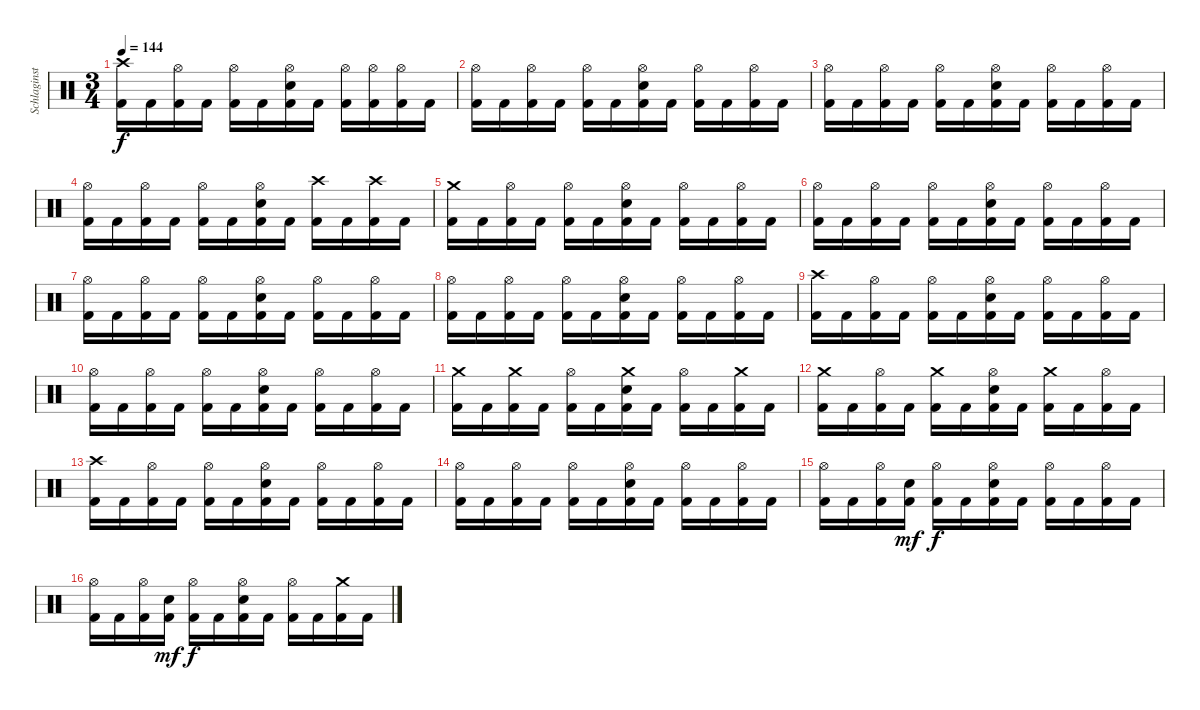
\track ("Schlaginstrumente - Auswahl" "Schlaginst") {instrument percussion}
\staff {score}
\articulation defaults
\ts (3 4)
\tempo 144
\clef neutral
\ks c
("Crash high (hit)" "Kick (hit) 2").16{dy f} "Kick (hit) 2".16 ("Hi-Hat (open)" "Kick (hit) 2").16 "Kick (hit) 2".16 ("Hi-Hat (open)" "Kick (hit) 2").16 "Kick (hit) 2".16 ("Hi-Hat (open)" "Snare (hit) 2" "Kick (hit) 2").16 "Kick (hit) 2".16 ("Hi-Hat (open)" "Kick (hit) 2").16 ("Hi-Hat (open)" "Kick (hit) 2").16 ("Hi-Hat (open)" "Kick (hit) 2").16 "Kick (hit) 2".16 |
("Hi-Hat (open)" "Kick (hit) 2").16 "Kick (hit) 2".16 ("Hi-Hat (open)" "Kick (hit) 2").16 "Kick (hit) 2".16 ("Hi-Hat (open)" "Kick (hit) 2").16 "Kick (hit) 2".16 ("Hi-Hat (open)" "Snare (hit) 2" "Kick (hit) 2").16 "Kick (hit) 2".16 ("Hi-Hat (open)" "Kick (hit) 2").16 "Kick (hit) 2".16 ("Hi-Hat (open)" "Kick (hit) 2").16 "Kick (hit) 2".16 |
("Hi-Hat (open)" "Kick (hit) 2").16 "Kick (hit) 2".16 ("Hi-Hat (open)" "Kick (hit) 2").16 "Kick (hit) 2".16 ("Hi-Hat (open)" "Kick (hit) 2").16 "Kick (hit) 2".16 ("Hi-Hat (open)" "Snare (hit) 2" "Kick (hit) 2").16 "Kick (hit) 2".16 ("Hi-Hat (open)" "Kick (hit) 2").16 "Kick (hit) 2".16 ("Hi-Hat (open)" "Kick (hit) 2").16 "Kick (hit) 2".16 |
("Hi-Hat (open)" "Kick (hit) 2").16 "Kick (hit) 2".16 ("Hi-Hat (open)" "Kick (hit) 2").16 "Kick (hit) 2".16 ("Hi-Hat (open)" "Kick (hit) 2").16 "Kick (hit) 2".16 ("Hi-Hat (open)" "Snare (hit) 2" "Kick (hit) 2").16 "Kick (hit) 2".16 ("Crash high (hit)" "Kick (hit) 2").16 "Kick (hit) 2".16 ("Crash high (hit)" "Kick (hit) 2").16 "Kick (hit) 2".16 |
("Crash medium (hit)" "Kick (hit) 2").16 "Kick (hit) 2".16 ("Hi-Hat (open)" "Kick (hit) 2").16 "Kick (hit) 2".16 ("Hi-Hat (open)" "Kick (hit) 2").16 "Kick (hit) 2".16 ("Hi-Hat (open)" "Snare (hit) 2" "Kick (hit) 2").16 "Kick (hit) 2".16 ("Hi-Hat (open)" "Kick (hit) 2").16 "Kick (hit) 2".16 ("Hi-Hat (open)" "Kick (hit) 2").16 "Kick (hit) 2".16 |
("Hi-Hat (open)" "Kick (hit) 2").16 "Kick (hit) 2".16 ("Hi-Hat (open)" "Kick (hit) 2").16 "Kick (hit) 2".16 ("Hi-Hat (open)" "Kick (hit) 2").16 "Kick (hit) 2".16 ("Hi-Hat (open)" "Snare (hit) 2" "Kick (hit) 2").16 "Kick (hit) 2".16 ("Hi-Hat (open)" "Kick (hit) 2").16 "Kick (hit) 2".16 ("Hi-Hat (open)" "Kick (hit) 2").16 "Kick (hit) 2".16 |
("Hi-Hat (open)" "Kick (hit) 2").16 "Kick (hit) 2".16 ("Hi-Hat (open)" "Kick (hit) 2").16 "Kick (hit) 2".16 ("Hi-Hat (open)" "Kick (hit) 2").16 "Kick (hit) 2".16 ("Hi-Hat (open)" "Snare (hit) 2" "Kick (hit) 2").16 "Kick (hit) 2".16 ("Hi-Hat (open)" "Kick (hit) 2").16 "Kick (hit) 2".16 ("Hi-Hat (open)" "Kick (hit) 2").16 "Kick (hit) 2".16 |
("Hi-Hat (open)" "Kick (hit) 2").16 "Kick (hit) 2".16 ("Hi-Hat (open)" "Kick (hit) 2").16 "Kick (hit) 2".16 ("Hi-Hat (open)" "Kick (hit) 2").16 "Kick (hit) 2".16 ("Hi-Hat (open)" "Snare (hit) 2" "Kick (hit) 2").16 "Kick (hit) 2".16 ("Hi-Hat (open)" "Kick (hit) 2").16 "Kick (hit) 2".16 ("Hi-Hat (open)" "Kick (hit) 2").16 "Kick (hit) 2".16 |
("Crash high (hit)" "Kick (hit) 2").16 "Kick (hit) 2".16 ("Hi-Hat (open)" "Kick (hit) 2").16 "Kick (hit) 2".16 ("Hi-Hat (open)" "Kick (hit) 2").16 "Kick (hit) 2".16 ("Hi-Hat (open)" "Snare (hit) 2" "Kick (hit) 2").16 "Kick (hit) 2".16 ("Hi-Hat (open)" "Kick (hit) 2").16 "Kick (hit) 2".16 ("Hi-Hat (open)" "Kick (hit) 2").16 "Kick (hit) 2".16 |
("Hi-Hat (open)" "Kick (hit) 2").16 "Kick (hit) 2".16 ("Hi-Hat (open)" "Kick (hit) 2").16 "Kick (hit) 2".16 ("Hi-Hat (open)" "Kick (hit) 2").16 "Kick (hit) 2".16 ("Hi-Hat (open)" "Snare (hit) 2" "Kick (hit) 2").16 "Kick (hit) 2".16 ("Hi-Hat (open)" "Kick (hit) 2").16 "Kick (hit) 2".16 ("Hi-Hat (open)" "Kick (hit) 2").16 "Kick (hit) 2".16 |
("Crash medium (hit)" "Kick (hit) 2").16 "Kick (hit) 2".16 ("Crash medium (hit)" "Kick (hit) 2").16 "Kick (hit) 2".16 ("Hi-Hat (open)" "Kick (hit) 2").16 "Kick (hit) 2".16 ("Crash medium (hit)" "Snare (hit) 2" "Kick (hit) 2").16 "Kick (hit) 2".16 ("Hi-Hat (open)" "Kick (hit) 2").16 "Kick (hit) 2".16 ("Crash medium (hit)" "Kick (hit) 2").16 "Kick (hit) 2".16 |
("Crash medium (hit)" "Kick (hit) 2").16 "Kick (hit) 2".16 ("Hi-Hat (open)" "Kick (hit) 2").16 "Kick (hit) 2".16 ("Crash medium (hit)" "Kick (hit) 2").16 "Kick (hit) 2".16 ("Hi-Hat (open)" "Snare (hit) 2" "Kick (hit) 2").16 "Kick (hit) 2".16 ("Crash medium (hit)" "Kick (hit) 2").16 "Kick (hit) 2".16 ("Hi-Hat (open)" "Kick (hit) 2").16 "Kick (hit) 2".16 |
("Crash high (hit)" "Kick (hit) 2").16 "Kick (hit) 2".16 ("Hi-Hat (open)" "Kick (hit) 2").16 "Kick (hit) 2".16 ("Hi-Hat (open)" "Kick (hit) 2").16 "Kick (hit) 2".16 ("Hi-Hat (open)" "Snare (hit) 2" "Kick (hit) 2").16 "Kick (hit) 2".16 ("Hi-Hat (open)" "Kick (hit) 2").16 "Kick (hit) 2".16 ("Hi-Hat (open)" "Kick (hit) 2").16 "Kick (hit) 2".16 |
("Hi-Hat (open)" "Kick (hit) 2").16 "Kick (hit) 2".16 ("Hi-Hat (open)" "Kick (hit) 2").16 "Kick (hit) 2".16 ("Hi-Hat (open)" "Kick (hit) 2").16 "Kick (hit) 2".16 ("Hi-Hat (open)" "Snare (hit) 2" "Kick (hit) 2").16 "Kick (hit) 2".16 ("Hi-Hat (open)" "Kick (hit) 2").16 "Kick (hit) 2".16 ("Hi-Hat (open)" "Kick (hit) 2").16 "Kick (hit) 2".16 |
("Hi-Hat (open)" "Kick (hit) 2").16 "Kick (hit) 2".16 ("Hi-Hat (open)" "Kick (hit) 2").16 ("Snare (hit) 2" "Kick (hit) 2").16{dy mf} ("Hi-Hat (open)" "Kick (hit) 2").16{dy f} "Kick (hit) 2".16 ("Hi-Hat (open)" "Snare (hit) 2" "Kick (hit) 2").16 "Kick (hit) 2".16 ("Hi-Hat (open)" "Kick (hit) 2").16 "Kick (hit) 2".16 ("Hi-Hat (open)" "Kick (hit) 2").16 "Kick (hit) 2".16 |
("Hi-Hat (open)" "Kick (hit) 2").16 "Kick (hit) 2".16 ("Hi-Hat (open)" "Kick (hit) 2").16 ("Snare (hit) 2" "Kick (hit) 2").16{dy mf} ("Hi-Hat (open)" "Kick (hit) 2").16{dy f} "Kick (hit) 2".16 ("Hi-Hat (open)" "Snare (hit) 2" "Kick (hit) 2").16 "Kick (hit) 2".16 ("Hi-Hat (open)" "Kick (hit) 2").16 "Kick (hit) 2".16 ("Crash medium (hit)" "Kick (hit) 2").16 "Kick (hit) 2".16
